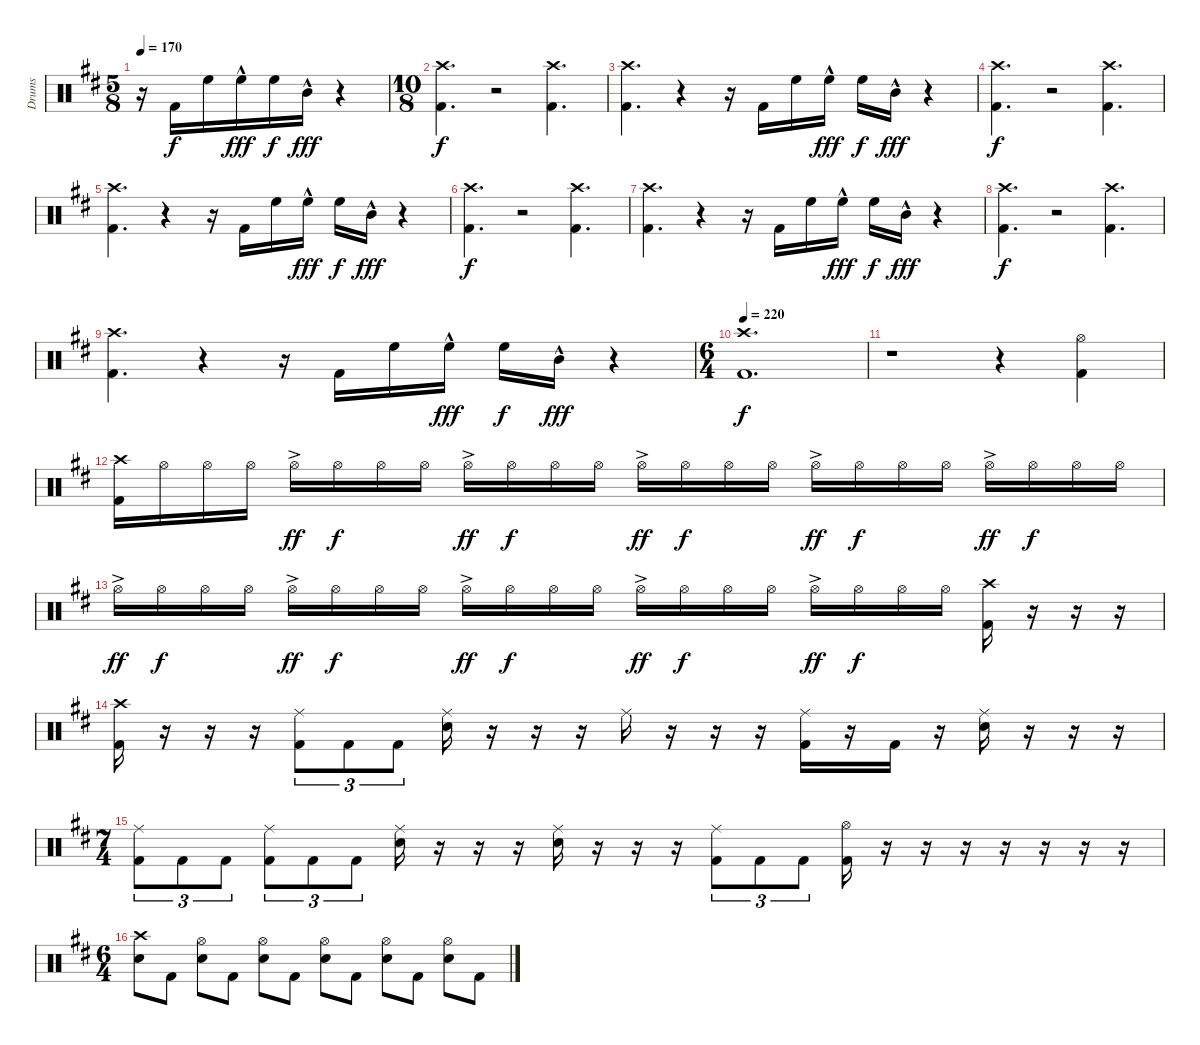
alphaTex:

\track ("Drums" "Drums") {instrument percussion}
\staff {score}
\articulation defaults
\ts (5 8)
\tempo 170
\clef neutral
\ks bminor
r.16{dy f} "Kick (hit) 2".16 "High Floor Tom (hit)".16 "High Floor Tom (hit)"{hac}.16{dy fff} "High Floor Tom (hit)".16{dy f} "Mid Tom (hit)"{hac}.16{dy fff} r.4 |
\ts (10 8)
("Kick (hit) 2" "Crash high (hit)").4{d dy f} r.2 ("Kick (hit) 2" "Crash high (hit)").4{d} |
("Kick (hit) 2" "Crash high (hit)").4{d} r.4 r.16 "Kick (hit) 2".16 "High Floor Tom (hit)".16 "High Floor Tom (hit)"{hac}.16{dy fff} "High Floor Tom (hit)".16{dy f} "Mid Tom (hit)"{hac}.16{dy fff} r.4 |
("Kick (hit) 2" "Crash high (hit)").4{d dy f} r.2 ("Kick (hit) 2" "Crash high (hit)").4{d} |
("Kick (hit) 2" "Crash high (hit)").4{d} r.4 r.16 "Kick (hit) 2".16 "High Floor Tom (hit)".16 "High Floor Tom (hit)"{hac}.16{dy fff} "High Floor Tom (hit)".16{dy f} "Mid Tom (hit)"{hac}.16{dy fff} r.4 |
("Kick (hit) 2" "Crash high (hit)").4{d dy f} r.2 ("Kick (hit) 2" "Crash high (hit)").4{d} |
("Kick (hit) 2" "Crash high (hit)").4{d} r.4 r.16 "Kick (hit) 2".16 "High Floor Tom (hit)".16 "High Floor Tom (hit)"{hac}.16{dy fff} "High Floor Tom (hit)".16{dy f} "Mid Tom (hit)"{hac}.16{dy fff} r.4 |
("Kick (hit) 2" "Crash high (hit)").4{d dy f} r.2 ("Kick (hit) 2" "Crash high (hit)").4{d} |
("Kick (hit) 2" "Crash high (hit)").4{d} r.4 r.16 "Kick (hit) 2".16 "High Floor Tom (hit)".16 "High Floor Tom (hit)"{hac}.16{dy fff} "High Floor Tom (hit)".16{dy f} "Mid Tom (hit)"{hac}.16{dy fff} r.4 |
\ts (6 4)
\tempo 220
("Kick (hit) 2" "Crash high (hit)").1{d dy f} |
r.1 r.4 ("Kick (hit) 2" "Hi-Hat (open)").4 |
("Kick (hit) 2" "Crash high (hit)").16 "Hi-Hat (open)".16 "Hi-Hat (open)".16 "Hi-Hat (open)".16 "Hi-Hat (open)"{ac}.16{dy ff} "Hi-Hat (open)".16{dy f} "Hi-Hat (open)".16 "Hi-Hat (open)".16 "Hi-Hat (open)"{ac}.16{dy ff} "Hi-Hat (open)".16{dy f} "Hi-Hat (open)".16 "Hi-Hat (open)".16 "Hi-Hat (open)"{ac}.16{dy ff} "Hi-Hat (open)".16{dy f} "Hi-Hat (open)".16 "Hi-Hat (open)".16 "Hi-Hat (open)"{ac}.16{dy ff} "Hi-Hat (open)".16{dy f} "Hi-Hat (open)".16 "Hi-Hat (open)".16 "Hi-Hat (open)"{ac}.16{dy ff} "Hi-Hat (open)".16{dy f} "Hi-Hat (open)".16 "Hi-Hat (open)".16 |
"Hi-Hat (open)"{ac}.16{dy ff} "Hi-Hat (open)".16{dy f} "Hi-Hat (open)".16 "Hi-Hat (open)".16 "Hi-Hat (open)"{ac}.16{dy ff} "Hi-Hat (open)".16{dy f} "Hi-Hat (open)".16 "Hi-Hat (open)".16 "Hi-Hat (open)"{ac}.16{dy ff} "Hi-Hat (open)".16{dy f} "Hi-Hat (open)".16 "Hi-Hat (open)".16 "Hi-Hat (open)"{ac}.16{dy ff} "Hi-Hat (open)".16{dy f} "Hi-Hat (open)".16 "Hi-Hat (open)".16 "Hi-Hat (open)"{ac}.16{dy ff} "Hi-Hat (open)".16{dy f} "Hi-Hat (open)".16 "Hi-Hat (open)".16 ("Kick (hit) 2" "Crash high (hit)").16 r.16 r.16 r.16 |
("Kick (hit) 2" "Crash high (hit)").16 r.16 r.16 r.16 ("Kick (hit) 2" "Ride (middle)").8{tu (3 2)} "Kick (hit) 2".8{tu (3 2)} "Kick (hit) 2".8{tu (3 2)} ("Electric Snare (hit)" "Ride (middle)").16 r.16 r.16 r.16 "Ride (middle)".16 r.16 r.16 r.16 ("Kick (hit) 2" "Ride (middle)").16 r.16 "Kick (hit) 2".16 r.16 ("Electric Snare (hit)" "Ride (middle)").16 r.16 r.16 r.16 |
\ts (7 4)
("Kick (hit) 2" "Ride (middle)").8{tu (3 2)} "Kick (hit) 2".8{tu (3 2)} "Kick (hit) 2".8{tu (3 2)} ("Kick (hit) 2" "Ride (middle)").8{tu (3 2)} "Kick (hit) 2".8{tu (3 2)} "Kick (hit) 2".8{tu (3 2)} ("Electric Snare (hit)" "Ride (middle)").16 r.16 r.16 r.16 ("Electric Snare (hit)" "Ride (middle)").16 r.16 r.16 r.16 ("Kick (hit) 2" "Ride (middle)").8{tu (3 2)} "Kick (hit) 2".8{tu (3 2)} "Kick (hit) 2".8{tu (3 2)} ("Kick (hit) 2" "Hi-Hat (open)").16 r.16 r.16 r.16 r.16 r.16 r.16 r.16 |
\ts (6 4)
("Electric Snare (hit)" "Crash high (hit)").8 "Kick (hit) 2".8 ("Electric Snare (hit)" "Hi-Hat (open)").8 "Kick (hit) 2".8 ("Electric Snare (hit)" "Hi-Hat (open)").8 "Kick (hit) 2".8 ("Electric Snare (hit)" "Hi-Hat (open)").8 "Kick (hit) 2".8 ("Electric Snare (hit)" "Hi-Hat (open)").8 "Kick (hit) 2".8 ("Electric Snare (hit)" "Hi-Hat (open)").8 "Kick (hit) 2".8
